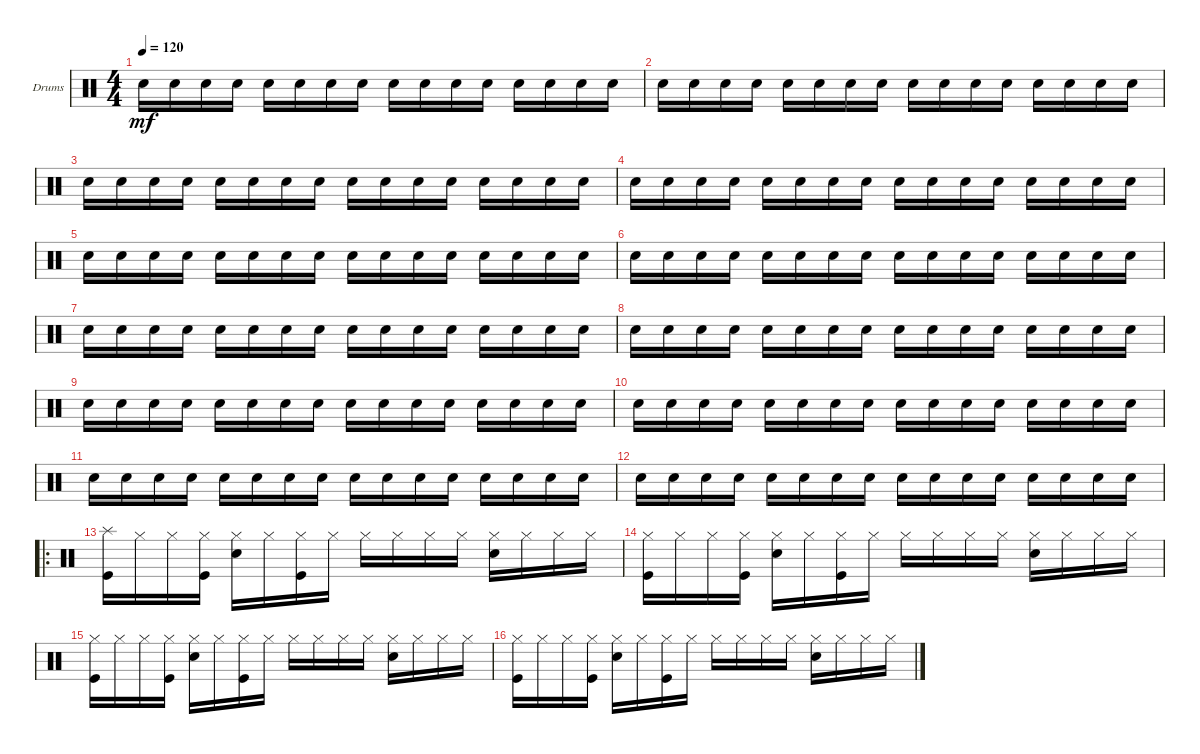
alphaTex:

\defaultSystemsLayout 4
\bracketExtendMode groupsimilarinstruments
\firstSystemTrackNameOrientation horizontal
\otherSystemsTrackNameOrientation horizontal
\track ("Drumkit" "Drums") {instrument percussion}
\staff {score}
\articulation defaults
\ts (4 4)
\tempo 120
\clef neutral
\ks c "Snare (hit) 2".16{dy mf} "Snare (hit) 2".16 "Snare (hit) 2".16 "Snare (hit) 2".16 "Snare (hit) 2".16 "Snare (hit) 2".16 "Snare (hit) 2".16 "Snare (hit) 2".16 "Snare (hit) 2".16 "Snare (hit) 2".16 "Snare (hit) 2".16 "Snare (hit) 2".16 "Snare (hit) 2".16 "Snare (hit) 2".16 "Snare (hit) 2".16 "Snare (hit) 2".16
|
"Snare (hit) 2".16 "Snare (hit) 2".16 "Snare (hit) 2".16 "Snare (hit) 2".16 "Snare (hit) 2".16 "Snare (hit) 2".16 "Snare (hit) 2".16 "Snare (hit) 2".16 "Snare (hit) 2".16 "Snare (hit) 2".16 "Snare (hit) 2".16 "Snare (hit) 2".16 "Snare (hit) 2".16 "Snare (hit) 2".16 "Snare (hit) 2".16 "Snare (hit) 2".16 |
"Snare (hit) 2".16 "Snare (hit) 2".16 "Snare (hit) 2".16 "Snare (hit) 2".16 "Snare (hit) 2".16 "Snare (hit) 2".16 "Snare (hit) 2".16 "Snare (hit) 2".16 "Snare (hit) 2".16 "Snare (hit) 2".16 "Snare (hit) 2".16 "Snare (hit) 2".16 "Snare (hit) 2".16 "Snare (hit) 2".16 "Snare (hit) 2".16 "Snare (hit) 2".16 |
"Snare (hit) 2".16 "Snare (hit) 2".16 "Snare (hit) 2".16 "Snare (hit) 2".16 "Snare (hit) 2".16 "Snare (hit) 2".16 "Snare (hit) 2".16 "Snare (hit) 2".16 "Snare (hit) 2".16 "Snare (hit) 2".16 "Snare (hit) 2".16 "Snare (hit) 2".16 "Snare (hit) 2".16 "Snare (hit) 2".16 "Snare (hit) 2".16 "Snare (hit) 2".16 |
"Snare (hit) 2".16 "Snare (hit) 2".16 "Snare (hit) 2".16 "Snare (hit) 2".16 "Snare (hit) 2".16 "Snare (hit) 2".16 "Snare (hit) 2".16 "Snare (hit) 2".16 "Snare (hit) 2".16 "Snare (hit) 2".16 "Snare (hit) 2".16 "Snare (hit) 2".16 "Snare (hit) 2".16 "Snare (hit) 2".16 "Snare (hit) 2".16 "Snare (hit) 2".16 |
"Snare (hit) 2".16 "Snare (hit) 2".16 "Snare (hit) 2".16 "Snare (hit) 2".16 "Snare (hit) 2".16 "Snare (hit) 2".16 "Snare (hit) 2".16 "Snare (hit) 2".16 "Snare (hit) 2".16 "Snare (hit) 2".16 "Snare (hit) 2".16 "Snare (hit) 2".16 "Snare (hit) 2".16 "Snare (hit) 2".16 "Snare (hit) 2".16 "Snare (hit) 2".16 |
"Snare (hit) 2".16 "Snare (hit) 2".16 "Snare (hit) 2".16 "Snare (hit) 2".16 "Snare (hit) 2".16 "Snare (hit) 2".16 "Snare (hit) 2".16 "Snare (hit) 2".16 "Snare (hit) 2".16 "Snare (hit) 2".16 "Snare (hit) 2".16 "Snare (hit) 2".16 "Snare (hit) 2".16 "Snare (hit) 2".16 "Snare (hit) 2".16 "Snare (hit) 2".16 |
"Snare (hit) 2".16 "Snare (hit) 2".16 "Snare (hit) 2".16 "Snare (hit) 2".16 "Snare (hit) 2".16 "Snare (hit) 2".16 "Snare (hit) 2".16 "Snare (hit) 2".16 "Snare (hit) 2".16 "Snare (hit) 2".16 "Snare (hit) 2".16 "Snare (hit) 2".16 "Snare (hit) 2".16 "Snare (hit) 2".16 "Snare (hit) 2".16 "Snare (hit) 2".16 |
"Snare (hit) 2".16 "Snare (hit) 2".16 "Snare (hit) 2".16 "Snare (hit) 2".16 "Snare (hit) 2".16 "Snare (hit) 2".16 "Snare (hit) 2".16 "Snare (hit) 2".16 "Snare (hit) 2".16 "Snare (hit) 2".16 "Snare (hit) 2".16 "Snare (hit) 2".16 "Snare (hit) 2".16 "Snare (hit) 2".16 "Snare (hit) 2".16 "Snare (hit) 2".16 |
"Snare (hit) 2".16 "Snare (hit) 2".16 "Snare (hit) 2".16 "Snare (hit) 2".16 "Snare (hit) 2".16 "Snare (hit) 2".16 "Snare (hit) 2".16 "Snare (hit) 2".16 "Snare (hit) 2".16 "Snare (hit) 2".16 "Snare (hit) 2".16 "Snare (hit) 2".16 "Snare (hit) 2".16 "Snare (hit) 2".16 "Snare (hit) 2".16 "Snare (hit) 2".16 |
"Snare (hit) 2".16 "Snare (hit) 2".16 "Snare (hit) 2".16 "Snare (hit) 2".16 "Snare (hit) 2".16 "Snare (hit) 2".16 "Snare (hit) 2".16 "Snare (hit) 2".16 "Snare (hit) 2".16 "Snare (hit) 2".16 "Snare (hit) 2".16 "Snare (hit) 2".16 "Snare (hit) 2".16 "Snare (hit) 2".16 "Snare (hit) 2".16 "Snare (hit) 2".16 |
"Snare (hit) 2".16 "Snare (hit) 2".16 "Snare (hit) 2".16 "Snare (hit) 2".16 "Snare (hit) 2".16 "Snare (hit) 2".16 "Snare (hit) 2".16 "Snare (hit) 2".16 "Snare (hit) 2".16 "Snare (hit) 2".16 "Snare (hit) 2".16 "Snare (hit) 2".16 "Snare (hit) 2".16 "Snare (hit) 2".16 "Snare (hit) 2".16 "Snare (hit) 2".16 |
\ro
("Splash (hit)" "Kick (hit)").16 "Hi-Hat (closed)".16 "Hi-Hat (closed)".16 ("Hi-Hat (closed)" "Kick (hit)").16 ("Hi-Hat (closed)" "Snare (hit) 2").16 "Hi-Hat (closed)".16 ("Hi-Hat (closed)" "Kick (hit)").16 "Hi-Hat (closed)".16 "Hi-Hat (closed)".16 "Hi-Hat (closed)".16 "Hi-Hat (closed)".16 "Hi-Hat (closed)".16 ("Hi-Hat (closed)" "Snare (hit) 2").16 "Hi-Hat (closed)".16 "Hi-Hat (closed)".16 "Hi-Hat (closed)".16 |
("Kick (hit)" "Hi-Hat (closed)").16 "Hi-Hat (closed)".16 "Hi-Hat (closed)".16 ("Hi-Hat (closed)" "Kick (hit)").16 ("Hi-Hat (closed)" "Snare (hit) 2").16 "Hi-Hat (closed)".16 ("Hi-Hat (closed)" "Kick (hit)").16 "Hi-Hat (closed)".16 "Hi-Hat (closed)".16 "Hi-Hat (closed)".16 "Hi-Hat (closed)".16 "Hi-Hat (closed)".16 ("Hi-Hat (closed)" "Snare (hit) 2").16 "Hi-Hat (closed)".16 "Hi-Hat (closed)".16 "Hi-Hat (closed)".16 |
("Kick (hit)" "Hi-Hat (closed)").16 "Hi-Hat (closed)".16 "Hi-Hat (closed)".16 ("Hi-Hat (closed)" "Kick (hit)").16 ("Hi-Hat (closed)" "Snare (hit) 2").16 "Hi-Hat (closed)".16 ("Hi-Hat (closed)" "Kick (hit)").16 "Hi-Hat (closed)".16 "Hi-Hat (closed)".16 "Hi-Hat (closed)".16 "Hi-Hat (closed)".16 "Hi-Hat (closed)".16 ("Hi-Hat (closed)" "Snare (hit) 2").16 "Hi-Hat (closed)".16 "Hi-Hat (closed)".16 "Hi-Hat (closed)".16 |
("Kick (hit)" "Hi-Hat (closed)").16 "Hi-Hat (closed)".16 "Hi-Hat (closed)".16 ("Hi-Hat (closed)" "Kick (hit)").16 ("Hi-Hat (closed)" "Snare (hit) 2").16 "Hi-Hat (closed)".16 ("Hi-Hat (closed)" "Kick (hit)").16 "Hi-Hat (closed)".16 "Hi-Hat (closed)".16 "Hi-Hat (closed)".16 "Hi-Hat (closed)".16 "Hi-Hat (closed)".16 ("Hi-Hat (closed)" "Snare (hit) 2").16 "Hi-Hat (closed)".16 "Hi-Hat (closed)".16 "Hi-Hat (closed)".16
